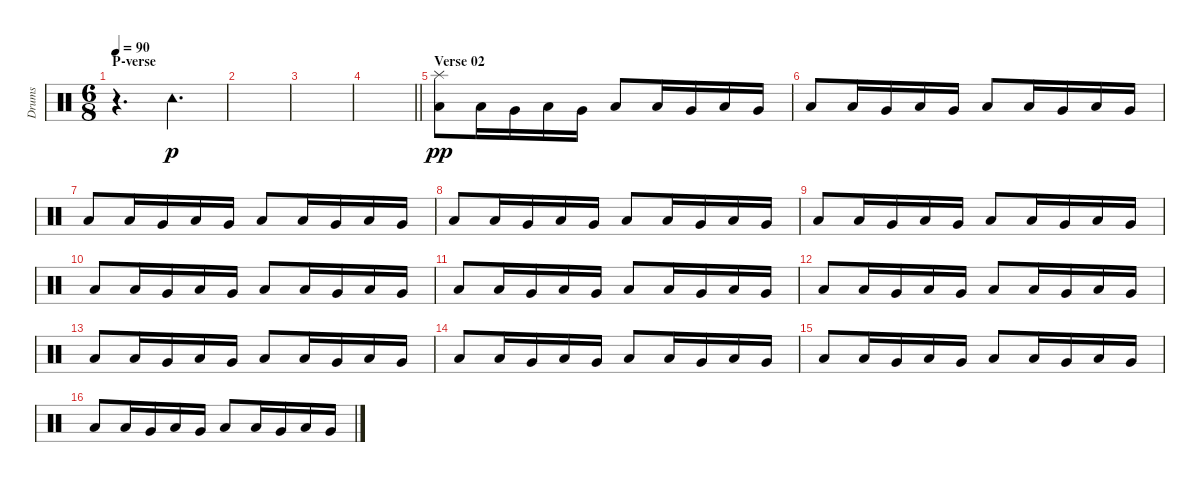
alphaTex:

\track ("Drums" "Drums") {instrument percussion}
\staff {score}
\articulation defaults
\ts (6 8)
\section ("" "P-verse")
\tempo 90
\clef neutral
\ks c
r.4{d dy p} "Tambourine (hit)".4{d} |
|
|
\barLineRight lightlight
|
\section ("" "Verse 02")
("Splash (hit)" "Low Floor Tom (hit)").8{dy pp} "Low Floor Tom (hit)".16 "Very Low Tom (hit)".16 "Low Floor Tom (hit)".16 "Very Low Tom (hit)".16 "Low Floor Tom (hit)".8 "Low Floor Tom (hit)".16 "Very Low Tom (hit)".16 "Low Floor Tom (hit)".16 "Very Low Tom (hit)".16 |
"Low Floor Tom (hit)".8 "Low Floor Tom (hit)".16 "Very Low Tom (hit)".16 "Low Floor Tom (hit)".16 "Very Low Tom (hit)".16 "Low Floor Tom (hit)".8 "Low Floor Tom (hit)".16 "Very Low Tom (hit)".16 "Low Floor Tom (hit)".16 "Very Low Tom (hit)".16 |
"Low Floor Tom (hit)".8 "Low Floor Tom (hit)".16 "Very Low Tom (hit)".16 "Low Floor Tom (hit)".16 "Very Low Tom (hit)".16 "Low Floor Tom (hit)".8 "Low Floor Tom (hit)".16 "Very Low Tom (hit)".16 "Low Floor Tom (hit)".16 "Very Low Tom (hit)".16 |
"Low Floor Tom (hit)".8 "Low Floor Tom (hit)".16 "Very Low Tom (hit)".16 "Low Floor Tom (hit)".16 "Very Low Tom (hit)".16 "Low Floor Tom (hit)".8 "Low Floor Tom (hit)".16 "Very Low Tom (hit)".16 "Low Floor Tom (hit)".16 "Very Low Tom (hit)".16 |
"Low Floor Tom (hit)".8 "Low Floor Tom (hit)".16 "Very Low Tom (hit)".16 "Low Floor Tom (hit)".16 "Very Low Tom (hit)".16 "Low Floor Tom (hit)".8 "Low Floor Tom (hit)".16 "Very Low Tom (hit)".16 "Low Floor Tom (hit)".16 "Very Low Tom (hit)".16 |
"Low Floor Tom (hit)".8 "Low Floor Tom (hit)".16 "Very Low Tom (hit)".16 "Low Floor Tom (hit)".16 "Very Low Tom (hit)".16 "Low Floor Tom (hit)".8 "Low Floor Tom (hit)".16 "Very Low Tom (hit)".16 "Low Floor Tom (hit)".16 "Very Low Tom (hit)".16 |
"Low Floor Tom (hit)".8 "Low Floor Tom (hit)".16 "Very Low Tom (hit)".16 "Low Floor Tom (hit)".16 "Very Low Tom (hit)".16 "Low Floor Tom (hit)".8 "Low Floor Tom (hit)".16 "Very Low Tom (hit)".16 "Low Floor Tom (hit)".16 "Very Low Tom (hit)".16 |
"Low Floor Tom (hit)".8 "Low Floor Tom (hit)".16 "Very Low Tom (hit)".16 "Low Floor Tom (hit)".16 "Very Low Tom (hit)".16 "Low Floor Tom (hit)".8 "Low Floor Tom (hit)".16 "Very Low Tom (hit)".16 "Low Floor Tom (hit)".16 "Very Low Tom (hit)".16 |
"Low Floor Tom (hit)".8 "Low Floor Tom (hit)".16 "Very Low Tom (hit)".16 "Low Floor Tom (hit)".16 "Very Low Tom (hit)".16 "Low Floor Tom (hit)".8 "Low Floor Tom (hit)".16 "Very Low Tom (hit)".16 "Low Floor Tom (hit)".16 "Very Low Tom (hit)".16 |
"Low Floor Tom (hit)".8 "Low Floor Tom (hit)".16 "Very Low Tom (hit)".16 "Low Floor Tom (hit)".16 "Very Low Tom (hit)".16 "Low Floor Tom (hit)".8 "Low Floor Tom (hit)".16 "Very Low Tom (hit)".16 "Low Floor Tom (hit)".16 "Very Low Tom (hit)".16 |
"Low Floor Tom (hit)".8 "Low Floor Tom (hit)".16 "Very Low Tom (hit)".16 "Low Floor Tom (hit)".16 "Very Low Tom (hit)".16 "Low Floor Tom (hit)".8 "Low Floor Tom (hit)".16 "Very Low Tom (hit)".16 "Low Floor Tom (hit)".16 "Very Low Tom (hit)".16 |
"Low Floor Tom (hit)".8 "Low Floor Tom (hit)".16 "Very Low Tom (hit)".16 "Low Floor Tom (hit)".16 "Very Low Tom (hit)".16 "Low Floor Tom (hit)".8 "Low Floor Tom (hit)".16 "Very Low Tom (hit)".16 "Low Floor Tom (hit)".16 "Very Low Tom (hit)".16
